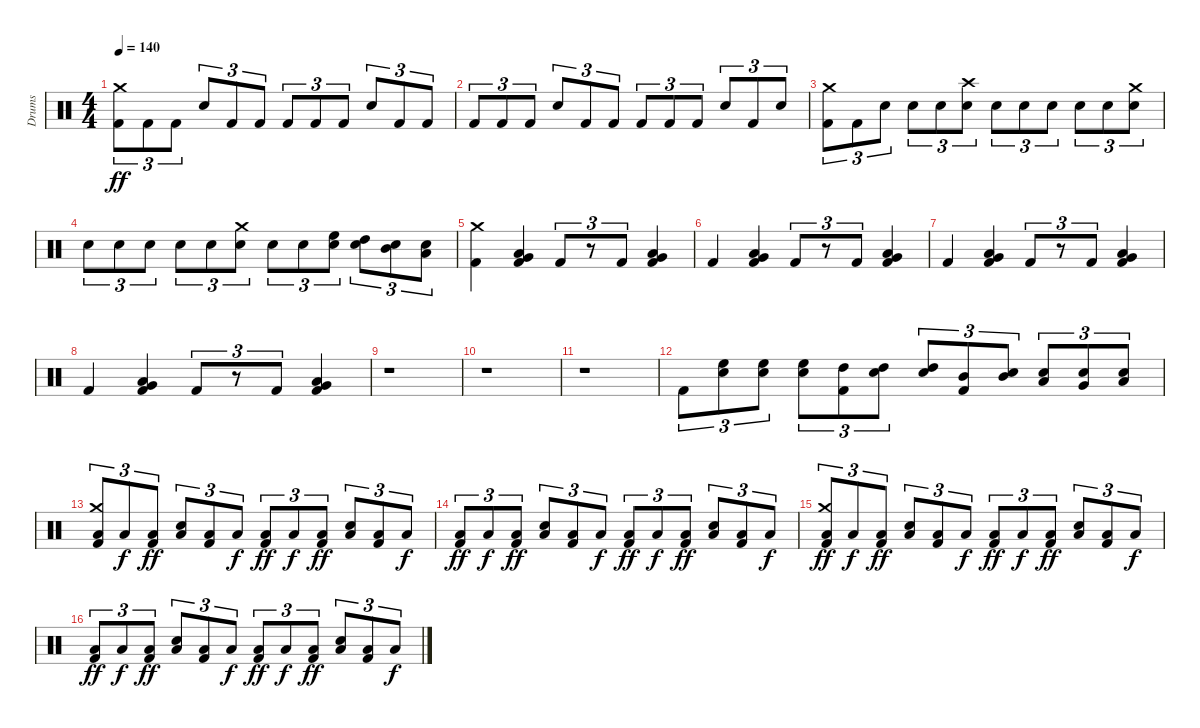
\track ("Drums" "Drums") {instrument percussion}
\staff {score}
\articulation defaults
\ts (4 4)
\tempo 140
\clef neutral
\ks c
("Kick (hit) 2" "Crash medium (hit)").8{tu (3 2) dy ff} "Kick (hit) 2".8{tu (3 2)} "Kick (hit) 2".8{tu (3 2)} "Snare (hit) 2".8{tu (3 2)} "Kick (hit) 2".8{tu (3 2)} "Kick (hit) 2".8{tu (3 2)} "Kick (hit) 2".8{tu (3 2)} "Kick (hit) 2".8{tu (3 2)} "Kick (hit) 2".8{tu (3 2)} "Snare (hit) 2".8{tu (3 2)} "Kick (hit) 2".8{tu (3 2)} "Kick (hit) 2".8{tu (3 2)} |
"Kick (hit) 2".8{tu (3 2)} "Kick (hit) 2".8{tu (3 2)} "Kick (hit) 2".8{tu (3 2)} "Snare (hit) 2".8{tu (3 2)} "Kick (hit) 2".8{tu (3 2)} "Kick (hit) 2".8{tu (3 2)} "Kick (hit) 2".8{tu (3 2)} "Kick (hit) 2".8{tu (3 2)} "Kick (hit) 2".8{tu (3 2)} "Snare (hit) 2".8{tu (3 2)} "Kick (hit) 2".8{tu (3 2)} "Snare (hit) 2".8{tu (3 2)} |
("Kick (hit) 2" "Crash medium (hit)").8{tu (3 2)} "Kick (hit) 2".8{tu (3 2)} "Snare (hit) 2".8{tu (3 2)} "Snare (hit) 2".8{tu (3 2)} "Snare (hit) 2".8{tu (3 2)} ("Snare (hit) 2" "Crash high (hit)").8{tu (3 2)} "Snare (hit) 2".8{tu (3 2)} "Snare (hit) 2".8{tu (3 2)} "Snare (hit) 2".8{tu (3 2)} "Snare (hit) 2".8{tu (3 2)} "Snare (hit) 2".8{tu (3 2)} ("Snare (hit) 2" "Crash medium (hit)").8{tu (3 2)} |
"Snare (hit) 2".8{tu (3 2)} "Snare (hit) 2".8{tu (3 2)} "Snare (hit) 2".8{tu (3 2)} "Snare (hit) 2".8{tu (3 2)} "Snare (hit) 2".8{tu (3 2)} ("Snare (hit) 2" "Crash medium (hit)").8{tu (3 2)} "Snare (hit) 2".8{tu (3 2)} "Snare (hit) 2".8{tu (3 2)} ("Snare (hit) 2" "High Floor Tom (hit)").8{tu (3 2)} ("Snare (hit) 2" "High Tom (hit)").8{tu (3 2)} ("Snare (hit) 2" "Mid Tom (hit)").8{tu (3 2)} ("Snare (hit) 2" "Low Tom (hit)").8{tu (3 2)} |
("Kick (hit) 2" "Crash medium (hit)").4 ("Kick (hit) 2" "Low Floor Tom (hit)" "Very Low Tom (hit)").4 "Kick (hit) 2".8{tu (3 2)} r.8{tu (3 2)} "Kick (hit) 2".8{tu (3 2)} ("Kick (hit) 2" "Low Floor Tom (hit)" "Very Low Tom (hit)").4 |
"Kick (hit) 2".4 ("Kick (hit) 2" "Low Floor Tom (hit)" "Very Low Tom (hit)").4 "Kick (hit) 2".8{tu (3 2)} r.8{tu (3 2)} "Kick (hit) 2".8{tu (3 2)} ("Kick (hit) 2" "Low Floor Tom (hit)" "Very Low Tom (hit)").4 |
"Kick (hit) 2".4 ("Kick (hit) 2" "Low Floor Tom (hit)" "Very Low Tom (hit)").4 "Kick (hit) 2".8{tu (3 2)} r.8{tu (3 2)} "Kick (hit) 2".8{tu (3 2)} ("Kick (hit) 2" "Low Floor Tom (hit)" "Very Low Tom (hit)").4 |
"Kick (hit) 2".4 ("Kick (hit) 2" "Low Floor Tom (hit)" "Very Low Tom (hit)").4 "Kick (hit) 2".8{tu (3 2)} r.8{tu (3 2)} "Kick (hit) 2".8{tu (3 2)} ("Kick (hit) 2" "Low Floor Tom (hit)" "Very Low Tom (hit)").4 |
r.1 |
r.1 |
r.1 |
"Kick (hit) 2".8{tu (3 2)} ("High Floor Tom (hit)" "Snare (hit) 2").8{tu (3 2)} ("High Floor Tom (hit)" "Snare (hit) 2").8{tu (3 2)} ("High Floor Tom (hit)" "Snare (hit) 2").8{tu (3 2)} ("High Tom (hit)" "Kick (hit) 2").8{tu (3 2)} ("High Tom (hit)" "Snare (hit) 2").8{tu (3 2)} ("High Tom (hit)" "Snare (hit) 2").8{tu (3 2)} ("Mid Tom (hit)" "Kick (hit) 2").8{tu (3 2)} ("Mid Tom (hit)" "Snare (hit) 2").8{tu (3 2)} ("Low Tom (hit)" "Snare (hit) 2").8{tu (3 2)} ("Very Low Tom (hit)" "Snare (hit) 2").8{tu (3 2)} ("Low Floor Tom (hit)" "Snare (hit) 2").8{tu (3 2)} |
("Kick (hit) 2" "Crash medium (hit)" "Low Floor Tom (hit)").8{tu (3 2)} "Low Floor Tom (hit)".8{tu (3 2) dy f} ("Kick (hit) 2" "Low Floor Tom (hit)").8{tu (3 2) dy ff} ("Snare (hit) 2" "Low Floor Tom (hit)").8{tu (3 2)} ("Kick (hit) 2" "Low Floor Tom (hit)").8{tu (3 2)} "Low Floor Tom (hit)".8{tu (3 2) dy f} ("Kick (hit) 2" "Low Floor Tom (hit)").8{tu (3 2) dy ff} "Low Floor Tom (hit)".8{tu (3 2) dy f} ("Kick (hit) 2" "Low Floor Tom (hit)").8{tu (3 2) dy ff} ("Snare (hit) 2" "Low Floor Tom (hit)").8{tu (3 2)} ("Kick (hit) 2" "Low Floor Tom (hit)").8{tu (3 2)} "Low Floor Tom (hit)".8{tu (3 2) dy f} |
("Kick (hit) 2" "Low Floor Tom (hit)").8{tu (3 2) dy ff} "Low Floor Tom (hit)".8{tu (3 2) dy f} ("Kick (hit) 2" "Low Floor Tom (hit)").8{tu (3 2) dy ff} ("Snare (hit) 2" "Low Floor Tom (hit)").8{tu (3 2)} ("Kick (hit) 2" "Low Floor Tom (hit)").8{tu (3 2)} "Low Floor Tom (hit)".8{tu (3 2) dy f} ("Kick (hit) 2" "Low Floor Tom (hit)").8{tu (3 2) dy ff} "Low Floor Tom (hit)".8{tu (3 2) dy f} ("Kick (hit) 2" "Low Floor Tom (hit)").8{tu (3 2) dy ff} ("Snare (hit) 2" "Low Floor Tom (hit)").8{tu (3 2)} ("Kick (hit) 2" "Low Floor Tom (hit)").8{tu (3 2)} "Low Floor Tom (hit)".8{tu (3 2) dy f} |
("Kick (hit) 2" "Crash medium (hit)" "Low Floor Tom (hit)").8{tu (3 2) dy ff} "Low Floor Tom (hit)".8{tu (3 2) dy f} ("Kick (hit) 2" "Low Floor Tom (hit)").8{tu (3 2) dy ff} ("Snare (hit) 2" "Low Floor Tom (hit)").8{tu (3 2)} ("Kick (hit) 2" "Low Floor Tom (hit)").8{tu (3 2)} "Low Floor Tom (hit)".8{tu (3 2) dy f} ("Kick (hit) 2" "Low Floor Tom (hit)").8{tu (3 2) dy ff} "Low Floor Tom (hit)".8{tu (3 2) dy f} ("Kick (hit) 2" "Low Floor Tom (hit)").8{tu (3 2) dy ff} ("Snare (hit) 2" "Low Floor Tom (hit)").8{tu (3 2)} ("Kick (hit) 2" "Low Floor Tom (hit)").8{tu (3 2)} "Low Floor Tom (hit)".8{tu (3 2) dy f} |
("Kick (hit) 2" "Low Floor Tom (hit)").8{tu (3 2) dy ff} "Low Floor Tom (hit)".8{tu (3 2) dy f} ("Kick (hit) 2" "Low Floor Tom (hit)").8{tu (3 2) dy ff} ("Snare (hit) 2" "Low Floor Tom (hit)").8{tu (3 2)} ("Kick (hit) 2" "Low Floor Tom (hit)").8{tu (3 2)} "Low Floor Tom (hit)".8{tu (3 2) dy f} ("Kick (hit) 2" "Low Floor Tom (hit)").8{tu (3 2) dy ff} "Low Floor Tom (hit)".8{tu (3 2) dy f} ("Kick (hit) 2" "Low Floor Tom (hit)").8{tu (3 2) dy ff} ("Snare (hit) 2" "Low Floor Tom (hit)").8{tu (3 2)} ("Kick (hit) 2" "Low Floor Tom (hit)").8{tu (3 2)} "Low Floor Tom (hit)".8{tu (3 2) dy f}
